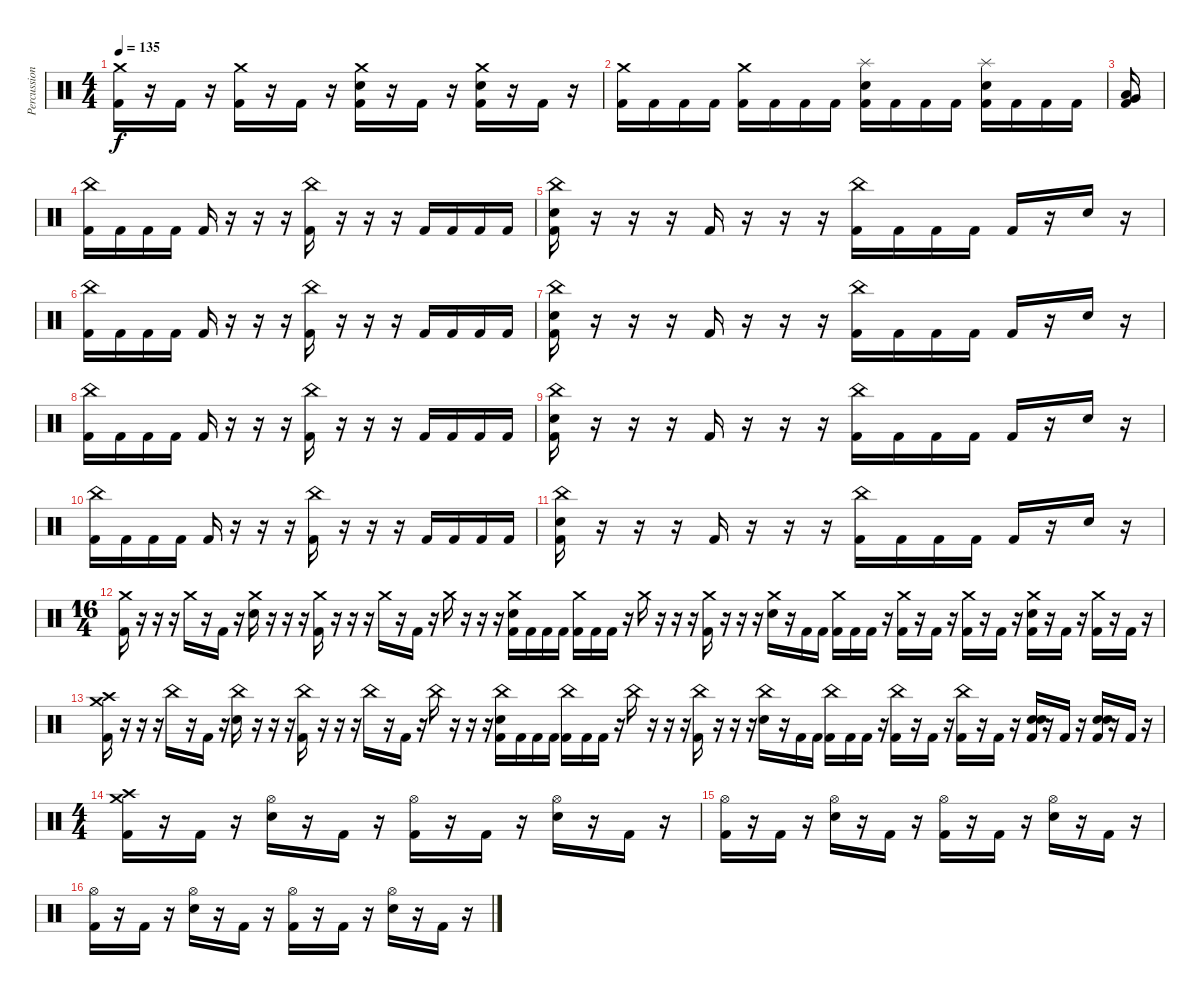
\track ("Percussion" "Percussion") {instrument percussion}
\staff {score}
\articulation defaults
\ts (4 4)
\tempo 135
\clef neutral
\ks c
("Crash medium (hit)" "Kick (hit) 2").16{dy f} r.16 "Kick (hit) 2".16 r.16 ("Crash medium (hit)" "Kick (hit) 2").16 r.16 "Kick (hit) 2".16 r.16 ("Crash medium (hit)" "Snare (hit) 2" "Kick (hit) 2").16 r.16 "Kick (hit) 2".16 r.16 ("Crash medium (hit)" "Snare (hit) 2" "Kick (hit) 2").16 r.16 "Kick (hit) 2".16 r.16 |
("Crash medium (hit)" "Kick (hit) 2").16 "Kick (hit) 2".16 "Kick (hit) 2".16 "Kick (hit) 2".16 ("Crash medium (hit)" "Kick (hit) 2").16 "Kick (hit) 2".16 "Kick (hit) 2".16 "Kick (hit) 2".16 ("Splash (hit)" "Snare (hit) 2" "Kick (hit) 2").16 "Kick (hit) 2".16 "Kick (hit) 2".16 "Kick (hit) 2".16 ("Splash (hit)" "Snare (hit) 2" "Kick (hit) 2").16 "Kick (hit) 2".16 "Kick (hit) 2".16 "Kick (hit) 2".16 |
("Very Low Tom (hit)" "Low Floor Tom (hit)" "Kick (hit) 2").16 |
("China (hit)" "Kick (hit) 2").16 "Kick (hit) 2".16 "Kick (hit) 2".16 "Kick (hit) 2".16 "Kick (hit) 2".16 r.16 r.16 r.16 ("China (hit)" "Kick (hit) 2").16 r.16 r.16 r.16 "Kick (hit) 2".16 "Kick (hit) 2".16 "Kick (hit) 2".16 "Kick (hit) 2".16 |
("China (hit)" "Snare (hit) 2" "Kick (hit) 2").16 r.16 r.16 r.16 "Kick (hit) 2".16 r.16 r.16 r.16 ("China (hit)" "Kick (hit) 2").16 "Kick (hit) 2".16 "Kick (hit) 2".16 "Kick (hit) 2".16 "Kick (hit) 2".16 r.16 "Snare (hit) 2".16 r.16 |
("China (hit)" "Kick (hit) 2").16 "Kick (hit) 2".16 "Kick (hit) 2".16 "Kick (hit) 2".16 "Kick (hit) 2".16 r.16 r.16 r.16 ("China (hit)" "Kick (hit) 2").16 r.16 r.16 r.16 "Kick (hit) 2".16 "Kick (hit) 2".16 "Kick (hit) 2".16 "Kick (hit) 2".16 |
("China (hit)" "Snare (hit) 2" "Kick (hit) 2").16 r.16 r.16 r.16 "Kick (hit) 2".16 r.16 r.16 r.16 ("China (hit)" "Kick (hit) 2").16 "Kick (hit) 2".16 "Kick (hit) 2".16 "Kick (hit) 2".16 "Kick (hit) 2".16 r.16 "Snare (hit) 2".16 r.16 |
("China (hit)" "Kick (hit) 2").16 "Kick (hit) 2".16 "Kick (hit) 2".16 "Kick (hit) 2".16 "Kick (hit) 2".16 r.16 r.16 r.16 ("China (hit)" "Kick (hit) 2").16 r.16 r.16 r.16 "Kick (hit) 2".16 "Kick (hit) 2".16 "Kick (hit) 2".16 "Kick (hit) 2".16 |
("China (hit)" "Snare (hit) 2" "Kick (hit) 2").16 r.16 r.16 r.16 "Kick (hit) 2".16 r.16 r.16 r.16 ("China (hit)" "Kick (hit) 2").16 "Kick (hit) 2".16 "Kick (hit) 2".16 "Kick (hit) 2".16 "Kick (hit) 2".16 r.16 "Snare (hit) 2".16 r.16 |
("China (hit)" "Kick (hit) 2").16 "Kick (hit) 2".16 "Kick (hit) 2".16 "Kick (hit) 2".16 "Kick (hit) 2".16 r.16 r.16 r.16 ("China (hit)" "Kick (hit) 2").16 r.16 r.16 r.16 "Kick (hit) 2".16 "Kick (hit) 2".16 "Kick (hit) 2".16 "Kick (hit) 2".16 |
("China (hit)" "Snare (hit) 2" "Kick (hit) 2").16 r.16 r.16 r.16 "Kick (hit) 2".16 r.16 r.16 r.16 ("China (hit)" "Kick (hit) 2").16 "Kick (hit) 2".16 "Kick (hit) 2".16 "Kick (hit) 2".16 "Kick (hit) 2".16 r.16 "Snare (hit) 2".16 r.16 |
\ts (16 4)
("Crash medium (hit)" "Kick (hit) 2").16 r.16 r.16 r.16 "Crash medium (hit)".16 r.16 "Kick (hit) 2".16 r.16 ("Crash medium (hit)" "Snare (hit) 2").16 r.16 r.16 r.16 ("Crash medium (hit)" "Kick (hit) 2").16 r.16 r.16 r.16 "Crash medium (hit)".16 r.16 "Kick (hit) 2".16 r.16 "Crash medium (hit)".16 r.16 r.16 r.16 ("Crash medium (hit)" "Snare (hit) 2" "Kick (hit) 2").16 "Kick (hit) 2".16 "Kick (hit) 2".16 "Kick (hit) 2".16 ("Crash medium (hit)" "Kick (hit) 2").16 "Kick (hit) 2".16 "Kick (hit) 2".16 r.16 "Crash medium (hit)".16 r.16 r.16 r.16 ("Crash medium (hit)" "Kick (hit) 2").16 r.16 r.16 r.16 ("Crash medium (hit)" "Snare (hit) 2").16 r.16 "Kick (hit) 2".16 "Kick (hit) 2".16 ("Crash medium (hit)" "Kick (hit) 2").16 "Kick (hit) 2".16 "Kick (hit) 2".16 r.16 ("Crash medium (hit)" "Kick (hit) 2").16 r.16 "Kick (hit) 2".16 r.16 ("Crash medium (hit)" "Kick (hit) 2").16 r.16 "Kick (hit) 2".16 r.16 ("Crash medium (hit)" "Snare (hit) 2" "Kick (hit) 2").16 r.16 "Kick (hit) 2".16 r.16 ("Crash medium (hit)" "Kick (hit) 2").16 r.16 "Kick (hit) 2".16 r.16 |
("Crash medium (hit)" "Crash high (hit)" "Kick (hit) 2").16 r.16 r.16 r.16 "China (hit)".16 r.16 "Kick (hit) 2".16 r.16 ("China (hit)" "Snare (hit) 2").16 r.16 r.16 r.16 ("China (hit)" "Kick (hit) 2").16 r.16 r.16 r.16 "China (hit)".16 r.16 "Kick (hit) 2".16 r.16 "China (hit)".16 r.16 r.16 r.16 ("China (hit)" "Snare (hit) 2" "Kick (hit) 2").16 "Kick (hit) 2".16 "Kick (hit) 2".16 "Kick (hit) 2".16 ("China (hit)" "Kick (hit) 2").16 "Kick (hit) 2".16 "Kick (hit) 2".16 r.16 "China (hit)".16 r.16 r.16 r.16 ("China (hit)" "Kick (hit) 2").16 r.16 r.16 r.16 ("China (hit)" "Snare (hit) 2").16 r.16 "Kick (hit) 2".16 "Kick (hit) 2".16 ("China (hit)" "Kick (hit) 2").16 "Kick (hit) 2".16 "Kick (hit) 2".16 r.16 ("China (hit)" "Kick (hit) 2").16 r.16 "Kick (hit) 2".16 r.16 ("China (hit)" "Kick (hit) 2").16 r.16 "Kick (hit) 2".16 r.16 ("Snare (hit) 2" "Snare (hit) 2" "Kick (hit) 2").16 r.16 "Kick (hit) 2".16 r.16 ("Snare (hit) 2" "Snare (hit) 2" "Kick (hit) 2").16 r.16 "Kick (hit) 2".16 r.16 |
\ts (4 4)
("Crash medium (hit)" "Crash high (hit)" "Kick (hit) 2").16 r.16 "Kick (hit) 2".16 r.16 ("Hi-Hat (open)" "Snare (hit) 2").16 r.16 "Kick (hit) 2".16 r.16 ("Hi-Hat (open)" "Kick (hit) 2").16 r.16 "Kick (hit) 2".16 r.16 ("Hi-Hat (open)" "Snare (hit) 2").16 r.16 "Kick (hit) 2".16 r.16 |
("Hi-Hat (open)" "Kick (hit) 2").16 r.16 "Kick (hit) 2".16 r.16 ("Hi-Hat (open)" "Snare (hit) 2").16 r.16 "Kick (hit) 2".16 r.16 ("Hi-Hat (open)" "Kick (hit) 2").16 r.16 "Kick (hit) 2".16 r.16 ("Hi-Hat (open)" "Snare (hit) 2").16 r.16 "Kick (hit) 2".16 r.16 |
("Hi-Hat (open)" "Kick (hit) 2").16 r.16 "Kick (hit) 2".16 r.16 ("Hi-Hat (open)" "Snare (hit) 2").16 r.16 "Kick (hit) 2".16 r.16 ("Hi-Hat (open)" "Kick (hit) 2").16 r.16 "Kick (hit) 2".16 r.16 ("Hi-Hat (open)" "Snare (hit) 2").16 r.16 "Kick (hit) 2".16 r.16
